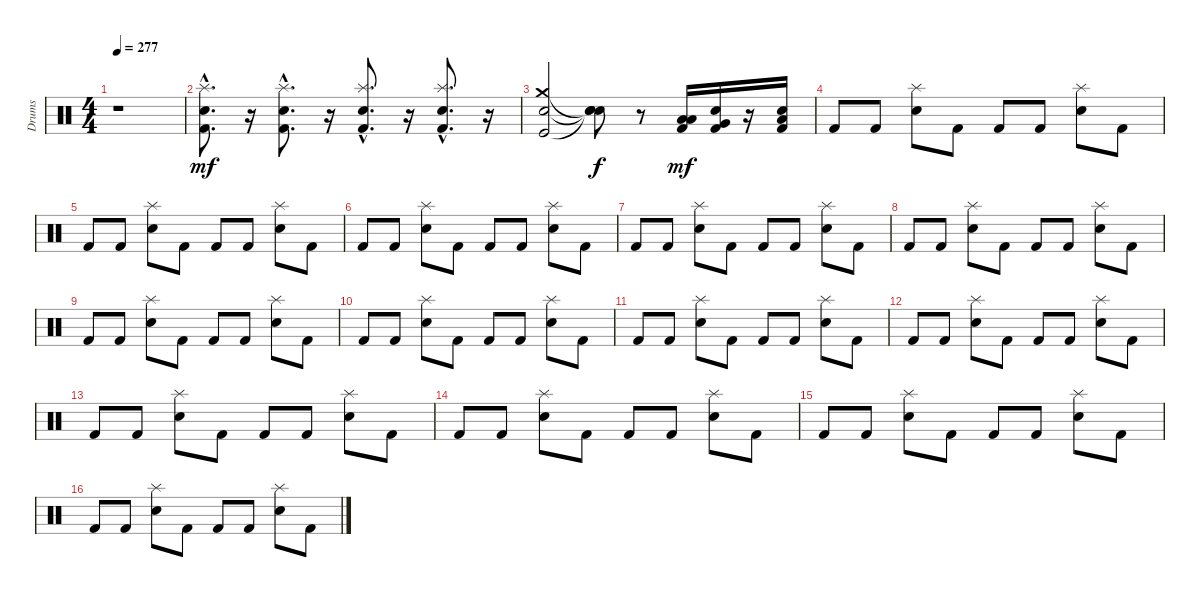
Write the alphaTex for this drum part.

\track ("Drums" "Drums") {instrument percussion}
\staff {score}
\articulation defaults
\ts (4 4)
\tempo 277
\clef neutral
\ks c
r.1{dy mf} |
("Electric Snare (hit)"{hac} "Kick (hit) 2"{hac} "Splash (hit)"{hac}).8{d} r.16 ("Kick (hit) 2"{hac} "Electric Snare (hit)"{hac} "Splash (hit)"{hac}).8{d} r.16 ("Kick (hit) 2"{hac} "Snare (hit) 2"{hac} "Splash (hit)"{hac}).8{d} r.16 ("Splash (hit)"{hac} "Snare (hit) 2"{hac} "Kick (hit) 2"{hac}).8{d} r.16 |
("Crash medium (hit)" "Kick (hit)" "Snare (hit) 2").2 ("Snare (hit)"{t} "Snare (hit)"{t} "Snare (hit)"{t}).8{dy f} r.8 ("Kick (hit) 2" "Low Tom (hit)" "Low Floor Tom (hit)").16{dy mf} ("Very Low Tom (hit)" "Electric Snare (hit)" "Kick (hit) 2").16 r.16 ("Snare (hit) 2" "Low Floor Tom (hit)" "Kick (hit) 2").16 |
"Kick (hit) 2".8 "Kick (hit) 2".8 ("Splash (hit)" "Electric Snare (hit)").8 "Kick (hit) 2".8 "Kick (hit) 2".8 "Kick (hit) 2".8 ("Electric Snare (hit)" "Splash (hit)").8 "Kick (hit) 2".8 |
"Kick (hit) 2".8 "Kick (hit) 2".8 ("Splash (hit)" "Electric Snare (hit)").8 "Kick (hit) 2".8 "Kick (hit) 2".8 "Kick (hit) 2".8 ("Splash (hit)" "Electric Snare (hit)").8 "Kick (hit) 2".8 |
"Kick (hit) 2".8 "Kick (hit) 2".8 ("Splash (hit)" "Electric Snare (hit)").8 "Kick (hit) 2".8 "Kick (hit) 2".8 "Kick (hit) 2".8 ("Splash (hit)" "Electric Snare (hit)").8 "Kick (hit) 2".8 |
"Kick (hit) 2".8 "Kick (hit) 2".8 ("Electric Snare (hit)" "Splash (hit)").8 "Kick (hit) 2".8 "Kick (hit) 2".8 "Kick (hit) 2".8 ("Splash (hit)" "Electric Snare (hit)").8 "Kick (hit) 2".8 |
"Kick (hit) 2".8 "Kick (hit) 2".8 ("Splash (hit)" "Electric Snare (hit)").8 "Kick (hit) 2".8 "Kick (hit) 2".8 "Kick (hit) 2".8 ("Splash (hit)" "Electric Snare (hit)").8 "Kick (hit) 2".8 |
"Kick (hit) 2".8 "Kick (hit) 2".8 ("Electric Snare (hit)" "Splash (hit)").8 "Kick (hit) 2".8 "Kick (hit) 2".8 "Kick (hit) 2".8 ("Electric Snare (hit)" "Splash (hit)").8 "Kick (hit) 2".8 |
"Kick (hit) 2".8 "Kick (hit) 2".8 ("Electric Snare (hit)" "Splash (hit)").8 "Kick (hit) 2".8 "Kick (hit) 2".8 "Kick (hit) 2".8 ("Splash (hit)" "Electric Snare (hit)").8 "Kick (hit) 2".8 |
"Kick (hit) 2".8 "Kick (hit) 2".8 ("Splash (hit)" "Electric Snare (hit)").8 "Kick (hit) 2".8 "Kick (hit) 2".8 "Kick (hit) 2".8 ("Electric Snare (hit)" "Splash (hit)").8 "Kick (hit) 2".8 |
"Kick (hit) 2".8 "Kick (hit) 2".8 ("Electric Snare (hit)" "Splash (hit)").8 "Kick (hit) 2".8 "Kick (hit) 2".8 "Kick (hit) 2".8 ("Splash (hit)" "Electric Snare (hit)").8 "Kick (hit) 2".8 |
"Kick (hit) 2".8 "Kick (hit) 2".8 ("Electric Snare (hit)" "Splash (hit)").8 "Kick (hit) 2".8 "Kick (hit) 2".8 "Kick (hit) 2".8 ("Electric Snare (hit)" "Splash (hit)").8 "Kick (hit) 2".8 |
"Kick (hit) 2".8 "Kick (hit) 2".8 ("Electric Snare (hit)" "Splash (hit)").8 "Kick (hit) 2".8 "Kick (hit) 2".8 "Kick (hit) 2".8 ("Electric Snare (hit)" "Splash (hit)").8 "Kick (hit) 2".8 |
"Kick (hit) 2".8 "Kick (hit) 2".8 ("Splash (hit)" "Electric Snare (hit)").8 "Kick (hit) 2".8 "Kick (hit) 2".8 "Kick (hit) 2".8 ("Electric Snare (hit)" "Splash (hit)").8 "Kick (hit) 2".8 |
"Kick (hit) 2".8 "Kick (hit) 2".8 ("Splash (hit)" "Electric Snare (hit)").8 "Kick (hit) 2".8 "Kick (hit) 2".8 "Kick (hit) 2".8 ("Splash (hit)" "Electric Snare (hit)").8 "Kick (hit) 2".8
